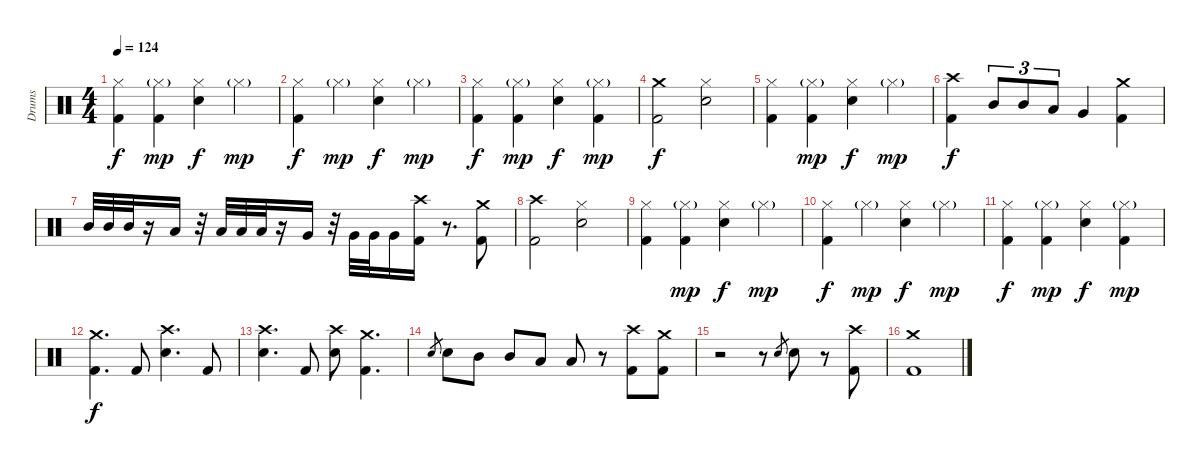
\track ("Drums" "Drums") {instrument percussion}
\staff {score}
\articulation defaults
\ts (4 4)
\tempo 124
\clef neutral
\ks c
("Hi-Hat (closed)" "Kick (hit) 2").4{dy f} ("Hi-Hat (closed)"{g} "Kick (hit) 2").4{dy mp} ("Hi-Hat (closed)" "Snare (hit) 2").4{dy f} "Hi-Hat (closed)"{g}.4{dy mp} |
("Hi-Hat (closed)" "Kick (hit) 2").4{dy f} "Hi-Hat (closed)"{g}.4{dy mp} ("Hi-Hat (closed)" "Snare (hit) 2").4{dy f} "Hi-Hat (closed)"{g}.4{dy mp} |
("Hi-Hat (closed)" "Kick (hit) 2").4{dy f} ("Hi-Hat (closed)"{g} "Kick (hit) 2").4{dy mp} ("Hi-Hat (closed)" "Snare (hit) 2").4{dy f} ("Hi-Hat (closed)"{g} "Kick (hit) 2").4{dy mp} |
("Crash medium (hit)" "Kick (hit) 2").2{dy f} ("Hi-Hat (closed)" "Snare (hit) 2").2 |
("Hi-Hat (closed)" "Kick (hit) 2").4 ("Hi-Hat (closed)"{g} "Kick (hit) 2").4{dy mp} ("Hi-Hat (closed)" "Snare (hit) 2").4{dy f} "Hi-Hat (closed)"{g}.4{dy mp} |
("Crash high (hit)" "Kick (hit) 2").4{dy f} "Mid Tom (hit)".8{tu (3 2)} "Mid Tom (hit)".8{tu (3 2)} "Low Tom (hit)".8{tu (3 2)} "Very Low Tom (hit)".4 ("Crash medium (hit)" "Kick (hit) 2").4 |
"Mid Tom (hit)".32 "Mid Tom (hit)".32 "Mid Tom (hit)".32 r.16 "Low Tom (hit)".16 r.32 "Low Tom (hit)".32 "Low Tom (hit)".32 "Low Tom (hit)".32 r.16 "Very Low Tom (hit)".16 r.32 "Very Low Tom (hit)".32 "Very Low Tom (hit)".32 "Very Low Tom (hit)".16 ("Crash high (hit)" "Kick (hit) 2").16 r.8{d} ("Crash medium (hit)" "Kick (hit) 2").8 |
("Crash high (hit)" "Kick (hit) 2").2 ("Hi-Hat (closed)" "Snare (hit) 2").2 |
("Hi-Hat (closed)" "Kick (hit) 2").4 ("Hi-Hat (closed)"{g} "Kick (hit) 2").4{dy mp} ("Hi-Hat (closed)" "Snare (hit) 2").4{dy f} "Hi-Hat (closed)"{g}.4{dy mp} |
("Hi-Hat (closed)" "Kick (hit) 2").4{dy f} "Hi-Hat (closed)"{g}.4{dy mp} ("Hi-Hat (closed)" "Snare (hit) 2").4{dy f} "Hi-Hat (closed)"{g}.4{dy mp} |
("Hi-Hat (closed)" "Kick (hit) 2").4{dy f} ("Hi-Hat (closed)"{g} "Kick (hit) 2").4{dy mp} ("Hi-Hat (closed)" "Snare (hit) 2").4{dy f} ("Hi-Hat (closed)"{g} "Kick (hit) 2").4{dy mp} |
("Crash medium (hit)" "Kick (hit) 2").4{d dy f} "Kick (hit) 2".8 ("Crash high (hit)" "Snare (hit) 2").4{d} "Kick (hit) 2".8 |
("Crash high (hit)" "Snare (hit) 2").4{d} "Kick (hit) 2".8 ("Crash high (hit)" "Snare (hit) 2").8 ("Crash medium (hit)" "Kick (hit) 2").4{d} |
"Snare (hit) 2".8{gr} "Snare (hit) 2".8 "Mid Tom (hit)".8 "Mid Tom (hit)".8 "Low Tom (hit)".8 "Low Tom (hit)".8 r.8 ("Crash high (hit)" "Kick (hit) 2").8 ("Crash medium (hit)" "Kick (hit) 2").8 |
r.2 r.8 "Snare (hit) 2".8{gr} "Snare (hit) 2".8 r.8 ("Crash high (hit)" "Kick (hit) 2").8 |
("Crash medium (hit)" "Kick (hit) 2").1
